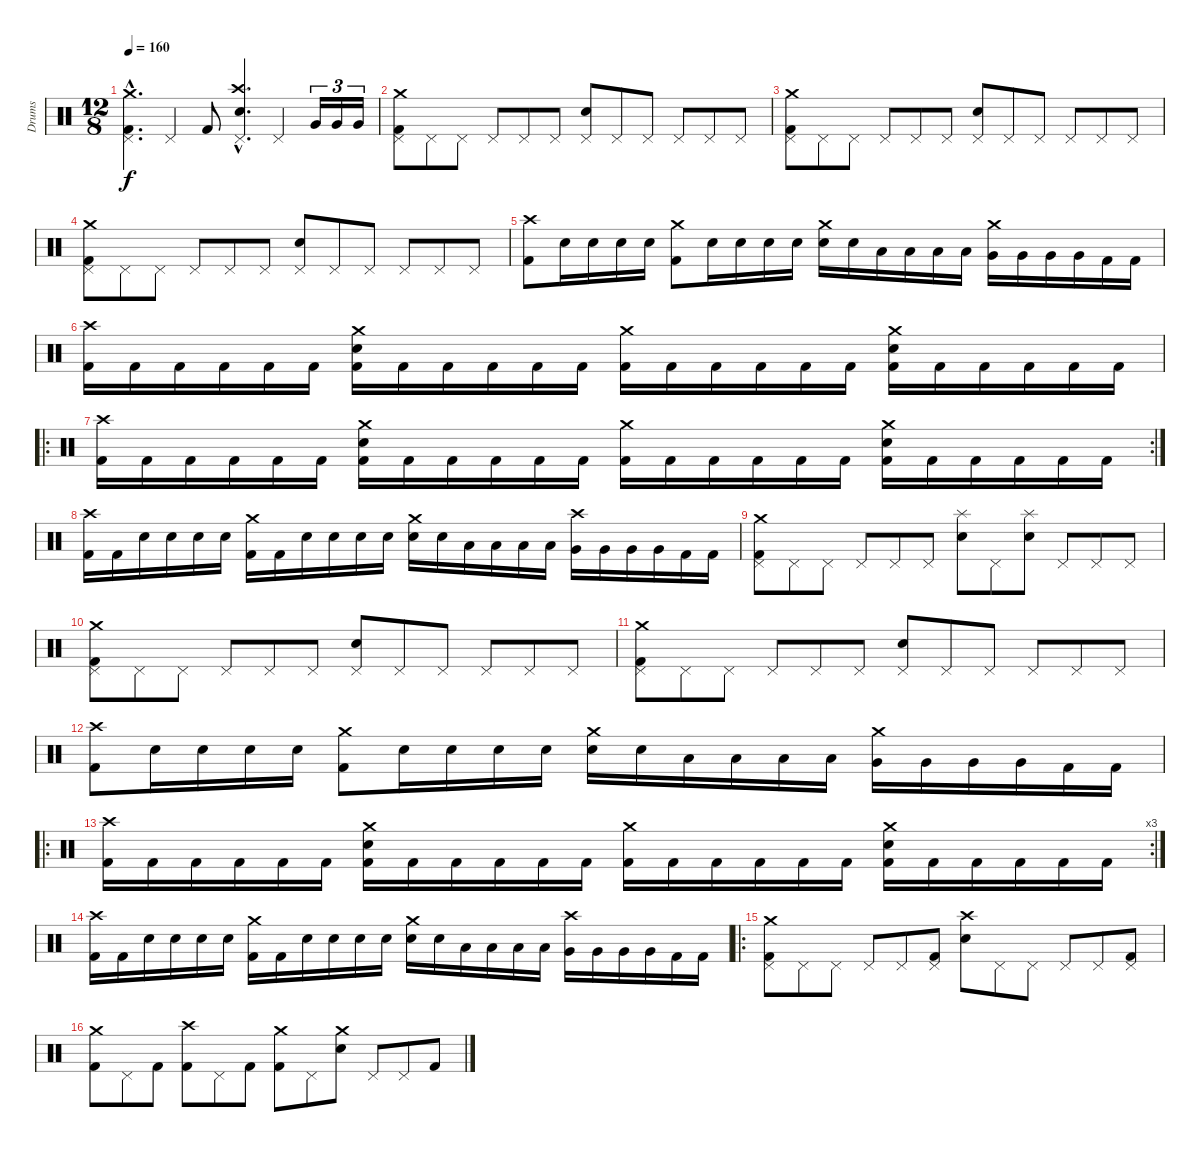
\track ("Drums" "Drums") {instrument percussion}
\staff {score}
\articulation defaults
\ts (12 8)
\tempo 160
\clef neutral
\ks c
("Crash medium (hit)"{hac} "Pedal Hi-Hat (hit)"{hac} "Kick (hit) 2"{hac}).4{d dy f} "Pedal Hi-Hat (hit)".4 "Kick (hit) 2".8 ("Crash high (hit)"{hac} "Pedal Hi-Hat (hit)"{hac} "Electric Snare (hit)"{hac}).4{d} "Pedal Hi-Hat (hit)".4 "Very Low Tom (hit)".16{tu (3 2)} "Very Low Tom (hit)".16{tu (3 2)} "Very Low Tom (hit)".16{tu (3 2)} |
("Crash medium (hit)" "Pedal Hi-Hat (hit)" "Kick (hit) 2").8 "Pedal Hi-Hat (hit)".8 "Pedal Hi-Hat (hit)".8 "Pedal Hi-Hat (hit)".8 "Pedal Hi-Hat (hit)".8 "Pedal Hi-Hat (hit)".8 ("Pedal Hi-Hat (hit)" "Electric Snare (hit)").8 "Pedal Hi-Hat (hit)".8 "Pedal Hi-Hat (hit)".8 "Pedal Hi-Hat (hit)".8 "Pedal Hi-Hat (hit)".8 "Pedal Hi-Hat (hit)".8 |
("Crash medium (hit)" "Pedal Hi-Hat (hit)" "Kick (hit) 2").8 "Pedal Hi-Hat (hit)".8 "Pedal Hi-Hat (hit)".8 "Pedal Hi-Hat (hit)".8 "Pedal Hi-Hat (hit)".8 "Pedal Hi-Hat (hit)".8 ("Pedal Hi-Hat (hit)" "Electric Snare (hit)").8 "Pedal Hi-Hat (hit)".8 "Pedal Hi-Hat (hit)".8 "Pedal Hi-Hat (hit)".8 "Pedal Hi-Hat (hit)".8 "Pedal Hi-Hat (hit)".8 |
("Crash medium (hit)" "Pedal Hi-Hat (hit)" "Kick (hit) 2").8 "Pedal Hi-Hat (hit)".8 "Pedal Hi-Hat (hit)".8 "Pedal Hi-Hat (hit)".8 "Pedal Hi-Hat (hit)".8 "Pedal Hi-Hat (hit)".8 ("Pedal Hi-Hat (hit)" "Electric Snare (hit)").8 "Pedal Hi-Hat (hit)".8 "Pedal Hi-Hat (hit)".8 "Pedal Hi-Hat (hit)".8 "Pedal Hi-Hat (hit)".8 "Pedal Hi-Hat (hit)".8 |
("Crash high (hit)" "Kick (hit) 2").8 "Electric Snare (hit)".16 "Electric Snare (hit)".16 "Electric Snare (hit)".16 "Electric Snare (hit)".16 ("Crash medium (hit)" "Kick (hit) 2").8 "Electric Snare (hit)".16 "Electric Snare (hit)".16 "Electric Snare (hit)".16 "Electric Snare (hit)".16 ("Crash medium (hit)" "Electric Snare (hit)").16 "Electric Snare (hit)".16 "Low Tom (hit)".16 "Low Tom (hit)".16 "Low Tom (hit)".16 "Low Tom (hit)".16 ("Crash medium (hit)" "Very Low Tom (hit)").16 "Very Low Tom (hit)".16 "Very Low Tom (hit)".16 "Very Low Tom (hit)".16 "Kick (hit) 2".16 "Kick (hit) 2".16 |
("Crash high (hit)" "Kick (hit) 2").16 "Kick (hit) 2".16 "Kick (hit) 2".16 "Kick (hit) 2".16 "Kick (hit) 2".16 "Kick (hit) 2".16 ("Crash medium (hit)" "Electric Snare (hit)" "Kick (hit) 2").16 "Kick (hit) 2".16 "Kick (hit) 2".16 "Kick (hit) 2".16 "Kick (hit) 2".16 "Kick (hit) 2".16 ("Crash medium (hit)" "Kick (hit) 2").16 "Kick (hit) 2".16 "Kick (hit) 2".16 "Kick (hit) 2".16 "Kick (hit) 2".16 "Kick (hit) 2".16 ("Crash medium (hit)" "Electric Snare (hit)" "Kick (hit) 2").16 "Kick (hit) 2".16 "Kick (hit) 2".16 "Kick (hit) 2".16 "Kick (hit) 2".16 "Kick (hit) 2".16 |
\ro
\rc 2
("Crash high (hit)" "Kick (hit) 2").16 "Kick (hit) 2".16 "Kick (hit) 2".16 "Kick (hit) 2".16 "Kick (hit) 2".16 "Kick (hit) 2".16 ("Crash medium (hit)" "Electric Snare (hit)" "Kick (hit) 2").16 "Kick (hit) 2".16 "Kick (hit) 2".16 "Kick (hit) 2".16 "Kick (hit) 2".16 "Kick (hit) 2".16 ("Crash medium (hit)" "Kick (hit) 2").16 "Kick (hit) 2".16 "Kick (hit) 2".16 "Kick (hit) 2".16 "Kick (hit) 2".16 "Kick (hit) 2".16 ("Crash medium (hit)" "Electric Snare (hit)" "Kick (hit) 2").16 "Kick (hit) 2".16 "Kick (hit) 2".16 "Kick (hit) 2".16 "Kick (hit) 2".16 "Kick (hit) 2".16 |
("Crash high (hit)" "Kick (hit) 2").16 "Kick (hit) 2".16 "Electric Snare (hit)".16 "Electric Snare (hit)".16 "Electric Snare (hit)".16 "Electric Snare (hit)".16 ("Crash medium (hit)" "Kick (hit) 2").16 "Kick (hit) 2".16 "Electric Snare (hit)".16 "Electric Snare (hit)".16 "Electric Snare (hit)".16 "Electric Snare (hit)".16 ("Crash medium (hit)" "Electric Snare (hit)").16 "Electric Snare (hit)".16 "Low Tom (hit)".16 "Low Tom (hit)".16 "Low Tom (hit)".16 "Low Tom (hit)".16 ("Crash high (hit)" "Very Low Tom (hit)").16 "Very Low Tom (hit)".16 "Very Low Tom (hit)".16 "Very Low Tom (hit)".16 "Kick (hit) 2".16 "Kick (hit) 2".16 |
("Crash medium (hit)" "Pedal Hi-Hat (hit)" "Kick (hit) 2").8 "Pedal Hi-Hat (hit)".8 "Pedal Hi-Hat (hit)".8 "Pedal Hi-Hat (hit)".8 "Pedal Hi-Hat (hit)".8 "Pedal Hi-Hat (hit)".8 ("Splash (hit)" "Electric Snare (hit)").8 "Pedal Hi-Hat (hit)".8 ("Splash (hit)" "Electric Snare (hit)").8 "Pedal Hi-Hat (hit)".8 "Pedal Hi-Hat (hit)".8 "Pedal Hi-Hat (hit)".8 |
("Crash medium (hit)" "Pedal Hi-Hat (hit)" "Kick (hit) 2").8 "Pedal Hi-Hat (hit)".8 "Pedal Hi-Hat (hit)".8 "Pedal Hi-Hat (hit)".8 "Pedal Hi-Hat (hit)".8 "Pedal Hi-Hat (hit)".8 ("Pedal Hi-Hat (hit)" "Electric Snare (hit)").8 "Pedal Hi-Hat (hit)".8 "Pedal Hi-Hat (hit)".8 "Pedal Hi-Hat (hit)".8 "Pedal Hi-Hat (hit)".8 "Pedal Hi-Hat (hit)".8 |
("Crash medium (hit)" "Pedal Hi-Hat (hit)" "Kick (hit) 2").8 "Pedal Hi-Hat (hit)".8 "Pedal Hi-Hat (hit)".8 "Pedal Hi-Hat (hit)".8 "Pedal Hi-Hat (hit)".8 "Pedal Hi-Hat (hit)".8 ("Pedal Hi-Hat (hit)" "Electric Snare (hit)").8 "Pedal Hi-Hat (hit)".8 "Pedal Hi-Hat (hit)".8 "Pedal Hi-Hat (hit)".8 "Pedal Hi-Hat (hit)".8 "Pedal Hi-Hat (hit)".8 |
("Crash high (hit)" "Kick (hit) 2").8 "Electric Snare (hit)".16 "Electric Snare (hit)".16 "Electric Snare (hit)".16 "Electric Snare (hit)".16 ("Crash medium (hit)" "Kick (hit) 2").8 "Electric Snare (hit)".16 "Electric Snare (hit)".16 "Electric Snare (hit)".16 "Electric Snare (hit)".16 ("Crash medium (hit)" "Electric Snare (hit)").16 "Electric Snare (hit)".16 "Low Tom (hit)".16 "Low Tom (hit)".16 "Low Tom (hit)".16 "Low Tom (hit)".16 ("Crash medium (hit)" "Very Low Tom (hit)").16 "Very Low Tom (hit)".16 "Very Low Tom (hit)".16 "Very Low Tom (hit)".16 "Kick (hit) 2".16 "Kick (hit) 2".16 |
\ro
\rc 3
("Crash high (hit)" "Kick (hit) 2").16 "Kick (hit) 2".16 "Kick (hit) 2".16 "Kick (hit) 2".16 "Kick (hit) 2".16 "Kick (hit) 2".16 ("Crash medium (hit)" "Electric Snare (hit)" "Kick (hit) 2").16 "Kick (hit) 2".16 "Kick (hit) 2".16 "Kick (hit) 2".16 "Kick (hit) 2".16 "Kick (hit) 2".16 ("Crash medium (hit)" "Kick (hit) 2").16 "Kick (hit) 2".16 "Kick (hit) 2".16 "Kick (hit) 2".16 "Kick (hit) 2".16 "Kick (hit) 2".16 ("Crash medium (hit)" "Electric Snare (hit)" "Kick (hit) 2").16 "Kick (hit) 2".16 "Kick (hit) 2".16 "Kick (hit) 2".16 "Kick (hit) 2".16 "Kick (hit) 2".16 |
("Crash high (hit)" "Kick (hit) 2").16 "Kick (hit) 2".16 "Electric Snare (hit)".16 "Electric Snare (hit)".16 "Electric Snare (hit)".16 "Electric Snare (hit)".16 ("Crash medium (hit)" "Kick (hit) 2").16 "Kick (hit) 2".16 "Electric Snare (hit)".16 "Electric Snare (hit)".16 "Electric Snare (hit)".16 "Electric Snare (hit)".16 ("Crash medium (hit)" "Electric Snare (hit)").16 "Electric Snare (hit)".16 "Low Tom (hit)".16 "Low Tom (hit)".16 "Low Tom (hit)".16 "Low Tom (hit)".16 ("Crash high (hit)" "Very Low Tom (hit)").16 "Very Low Tom (hit)".16 "Very Low Tom (hit)".16 "Very Low Tom (hit)".16 "Kick (hit) 2".16 "Kick (hit) 2".16 |
\ro
("Crash medium (hit)" "Pedal Hi-Hat (hit)" "Kick (hit) 2").8 "Pedal Hi-Hat (hit)".8 "Pedal Hi-Hat (hit)".8 "Pedal Hi-Hat (hit)".8 "Pedal Hi-Hat (hit)".8 ("Pedal Hi-Hat (hit)" "Kick (hit) 2").8 ("Crash high (hit)" "Electric Snare (hit)").8 "Pedal Hi-Hat (hit)".8 "Pedal Hi-Hat (hit)".8 "Pedal Hi-Hat (hit)".8 "Pedal Hi-Hat (hit)".8 ("Pedal Hi-Hat (hit)" "Kick (hit) 2").8 |
("Crash medium (hit)" "Kick (hit) 2").8 "Pedal Hi-Hat (hit)".8 "Kick (hit) 2".8 ("Crash high (hit)" "Kick (hit) 2").8 "Pedal Hi-Hat (hit)".8 "Kick (hit) 2".8 ("Crash medium (hit)" "Kick (hit) 2").8 "Pedal Hi-Hat (hit)".8 ("Crash medium (hit)" "Electric Snare (hit)").8 "Pedal Hi-Hat (hit)".8 "Pedal Hi-Hat (hit)".8 "Kick (hit) 2".8
